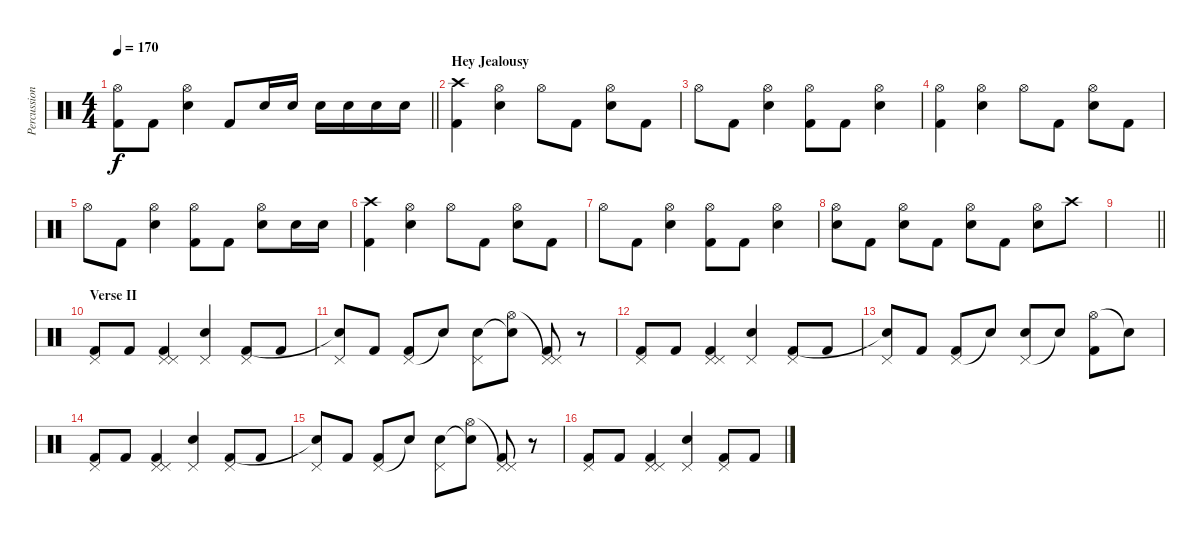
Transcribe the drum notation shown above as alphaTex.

\track ("Percussion" "Percussion") {instrument percussion}
\staff {score}
\articulation defaults
\ts (4 4)
\tempo 170
\clef neutral
\barLineRight lightlight
\ks c
("Hi-Hat (open)" "Kick (hit) 2").8{dy f} "Kick (hit) 2".8 ("Hi-Hat (open)" "Electric Snare (hit)").4 "Kick (hit) 2".8 "Electric Snare (hit)".16 "Electric Snare (hit)".16 "Electric Snare (hit)".16 "Electric Snare (hit)".16 "Electric Snare (hit)".16 "Electric Snare (hit)".16 |
\section ("" "Hey Jealousy")
("Crash high (hit)" "Kick (hit) 2").4{volume 13} ("Hi-Hat (open)" "Electric Snare (hit)").4 "Hi-Hat (open)".8 "Kick (hit) 2".8 ("Hi-Hat (open)" "Electric Snare (hit)").8 "Kick (hit) 2".8 |
"Hi-Hat (open)".8 "Kick (hit) 2".8 ("Hi-Hat (open)" "Electric Snare (hit)").4 ("Hi-Hat (open)" "Kick (hit) 2").8 "Kick (hit) 2".8 ("Hi-Hat (open)" "Electric Snare (hit)").4 |
("Hi-Hat (open)" "Kick (hit) 2").4 ("Hi-Hat (open)" "Electric Snare (hit)").4 "Hi-Hat (open)".8 "Kick (hit) 2".8 ("Hi-Hat (open)" "Electric Snare (hit)").8 "Kick (hit) 2".8 |
"Hi-Hat (open)".8 "Kick (hit) 2".8 ("Hi-Hat (open)" "Electric Snare (hit)").4 ("Hi-Hat (open)" "Kick (hit) 2").8 "Kick (hit) 2".8 ("Hi-Hat (open)" "Electric Snare (hit)").8 "Electric Snare (hit)".16 "Electric Snare (hit)".16 |
("Crash high (hit)" "Kick (hit) 2").4 ("Hi-Hat (open)" "Electric Snare (hit)").4 "Hi-Hat (open)".8 "Kick (hit) 2".8 ("Hi-Hat (open)" "Electric Snare (hit)").8 "Kick (hit) 2".8 |
"Hi-Hat (open)".8 "Kick (hit) 2".8 ("Hi-Hat (open)" "Electric Snare (hit)").4 ("Hi-Hat (open)" "Kick (hit) 2").8 "Kick (hit) 2".8 ("Hi-Hat (open)" "Electric Snare (hit)").4 |
("Hi-Hat (open)" "Electric Snare (hit)").8 "Kick (hit) 2".8 ("Hi-Hat (open)" "Electric Snare (hit)").8 "Kick (hit) 2".8 ("Hi-Hat (open)" "Electric Snare (hit)").8 "Kick (hit) 2".8 ("Hi-Hat (open)" "Electric Snare (hit)").8 "Crash high (hit)".8 |
\barLineRight lightlight
|
\section ("" "Verse II")
("Pedal Hi-Hat (hit)" "Kick (hit) 2").8 "Kick (hit) 2".8 ("Pedal Hi-Hat (hit)" "Pedal Hi-Hat (hit)" "Kick (hit) 2").4 ("Pedal Hi-Hat (hit)" "Electric Snare (hit)").4 ("Pedal Hi-Hat (hit)" "Kick (hit) 2").8 "Kick (hit) 2".8 |
("Pedal Hi-Hat (hit)" "Snare (hit)"{t}).8 "Kick (hit) 2".8 ("Pedal Hi-Hat (hit)" "Kick (hit) 2").8 "Snare (hit)"{t}.8 ("Pedal Hi-Hat (hit)" "Electric Snare (hit)").8 ("Hi-Hat (open)" "Snare (hit)"{t}).8 ("Pedal Hi-Hat (hit)"{t} "Pedal Hi-Hat (hit)" "Kick (hit) 2").8 r.8 |
("Pedal Hi-Hat (hit)" "Kick (hit) 2").8 "Kick (hit) 2".8 ("Pedal Hi-Hat (hit)" "Pedal Hi-Hat (hit)" "Kick (hit) 2").4 ("Pedal Hi-Hat (hit)" "Electric Snare (hit)").4 ("Pedal Hi-Hat (hit)" "Kick (hit) 2").8 "Kick (hit) 2".8 |
("Pedal Hi-Hat (hit)" "Snare (hit)"{t}).8 "Kick (hit) 2".8 ("Pedal Hi-Hat (hit)" "Kick (hit) 2").8 "Snare (hit)"{t}.8 ("Pedal Hi-Hat (hit)" "Electric Snare (hit)").8 "Snare (hit)"{t}.8 ("Hi-Hat (open)" "Kick (hit) 2").8 "Snare (hit)"{t}.8 |
("Pedal Hi-Hat (hit)" "Kick (hit) 2").8 "Kick (hit) 2".8 ("Pedal Hi-Hat (hit)" "Pedal Hi-Hat (hit)" "Kick (hit) 2").4 ("Pedal Hi-Hat (hit)" "Electric Snare (hit)").4 ("Pedal Hi-Hat (hit)" "Kick (hit) 2").8 "Kick (hit) 2".8 |
("Pedal Hi-Hat (hit)" "Snare (hit)"{t}).8 "Kick (hit) 2".8 ("Pedal Hi-Hat (hit)" "Kick (hit) 2").8 "Snare (hit)"{t}.8 ("Pedal Hi-Hat (hit)" "Electric Snare (hit)").8 ("Hi-Hat (open)" "Snare (hit)"{t}).8 ("Pedal Hi-Hat (hit)"{t} "Pedal Hi-Hat (hit)" "Kick (hit) 2").8 r.8 |
("Pedal Hi-Hat (hit)" "Kick (hit) 2").8 "Kick (hit) 2".8 ("Pedal Hi-Hat (hit)" "Pedal Hi-Hat (hit)" "Kick (hit) 2").4 ("Pedal Hi-Hat (hit)" "Electric Snare (hit)").4 ("Pedal Hi-Hat (hit)" "Kick (hit) 2").8 "Kick (hit) 2".8
